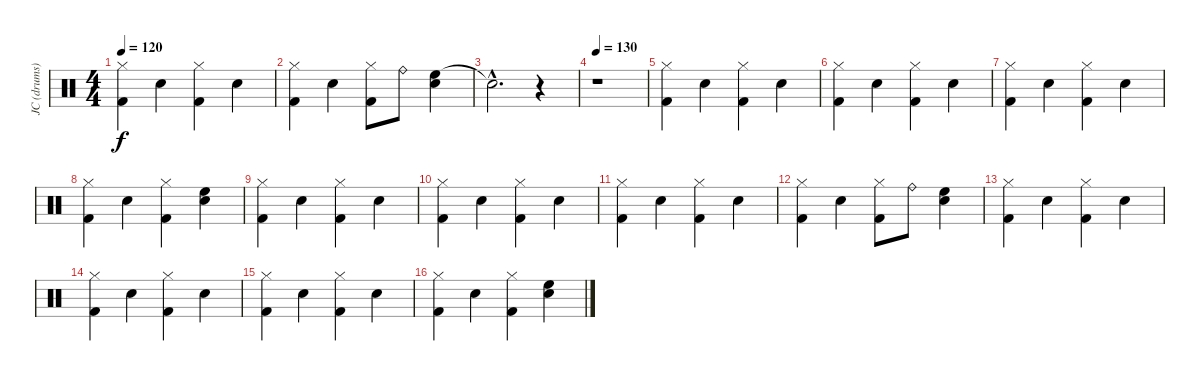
\track ("JC (drums)" "JC (drums)") {instrument percussion}
\staff {score}
\articulation defaults
\ts (4 4)
\tempo 120
\clef neutral
\ks c
("Hi-Hat (closed)" "Kick (hit) 2").4{dy f} "Electric Snare (hit)".4 ("Hi-Hat (closed)" "Kick (hit) 2").4 "Snare (hit) 2".4 |
("Hi-Hat (closed)" "Kick (hit) 2").4 "Electric Snare (hit)".4 ("Hi-Hat (closed)" "Kick (hit) 2").8 "Ride (bell)".8 ("High Floor Tom (hit)" "Snare (hit) 2").4 |
"Snare (hit)"{hac t}.2{d} r.4 |
\tempo 130
r.1 |
("Hi-Hat (closed)" "Kick (hit) 2").4 "Electric Snare (hit)".4 ("Hi-Hat (closed)" "Kick (hit) 2").4 "Snare (hit) 2".4 |
("Hi-Hat (closed)" "Kick (hit) 2").4 "Electric Snare (hit)".4 ("Hi-Hat (closed)" "Kick (hit) 2").4 "Snare (hit) 2".4 |
("Hi-Hat (closed)" "Kick (hit) 2").4 "Electric Snare (hit)".4 ("Hi-Hat (closed)" "Kick (hit) 2").4 "Snare (hit) 2".4 |
("Hi-Hat (closed)" "Kick (hit) 2").4 "Electric Snare (hit)".4 ("Hi-Hat (closed)" "Kick (hit) 2").4 ("High Floor Tom (hit)" "Snare (hit) 2").4 |
("Hi-Hat (closed)" "Kick (hit) 2").4 "Electric Snare (hit)".4 ("Hi-Hat (closed)" "Kick (hit) 2").4 "Snare (hit) 2".4 |
("Hi-Hat (closed)" "Kick (hit) 2").4 "Electric Snare (hit)".4 ("Hi-Hat (closed)" "Kick (hit) 2").4 "Snare (hit) 2".4 |
("Hi-Hat (closed)" "Kick (hit) 2").4 "Electric Snare (hit)".4 ("Hi-Hat (closed)" "Kick (hit) 2").4 "Snare (hit) 2".4 |
("Hi-Hat (closed)" "Kick (hit) 2").4 "Electric Snare (hit)".4 ("Hi-Hat (closed)" "Kick (hit) 2").8 "Ride (bell)".8 ("High Floor Tom (hit)" "Snare (hit) 2").4 |
("Hi-Hat (closed)" "Kick (hit) 2").4 "Electric Snare (hit)".4 ("Hi-Hat (closed)" "Kick (hit) 2").4 "Snare (hit) 2".4 |
("Hi-Hat (closed)" "Kick (hit) 2").4 "Electric Snare (hit)".4 ("Hi-Hat (closed)" "Kick (hit) 2").4 "Snare (hit) 2".4 |
("Hi-Hat (closed)" "Kick (hit) 2").4 "Electric Snare (hit)".4 ("Hi-Hat (closed)" "Kick (hit) 2").4 "Snare (hit) 2".4 |
("Hi-Hat (closed)" "Kick (hit) 2").4 "Electric Snare (hit)".4 ("Hi-Hat (closed)" "Kick (hit) 2").4 ("High Floor Tom (hit)" "Snare (hit) 2").4
